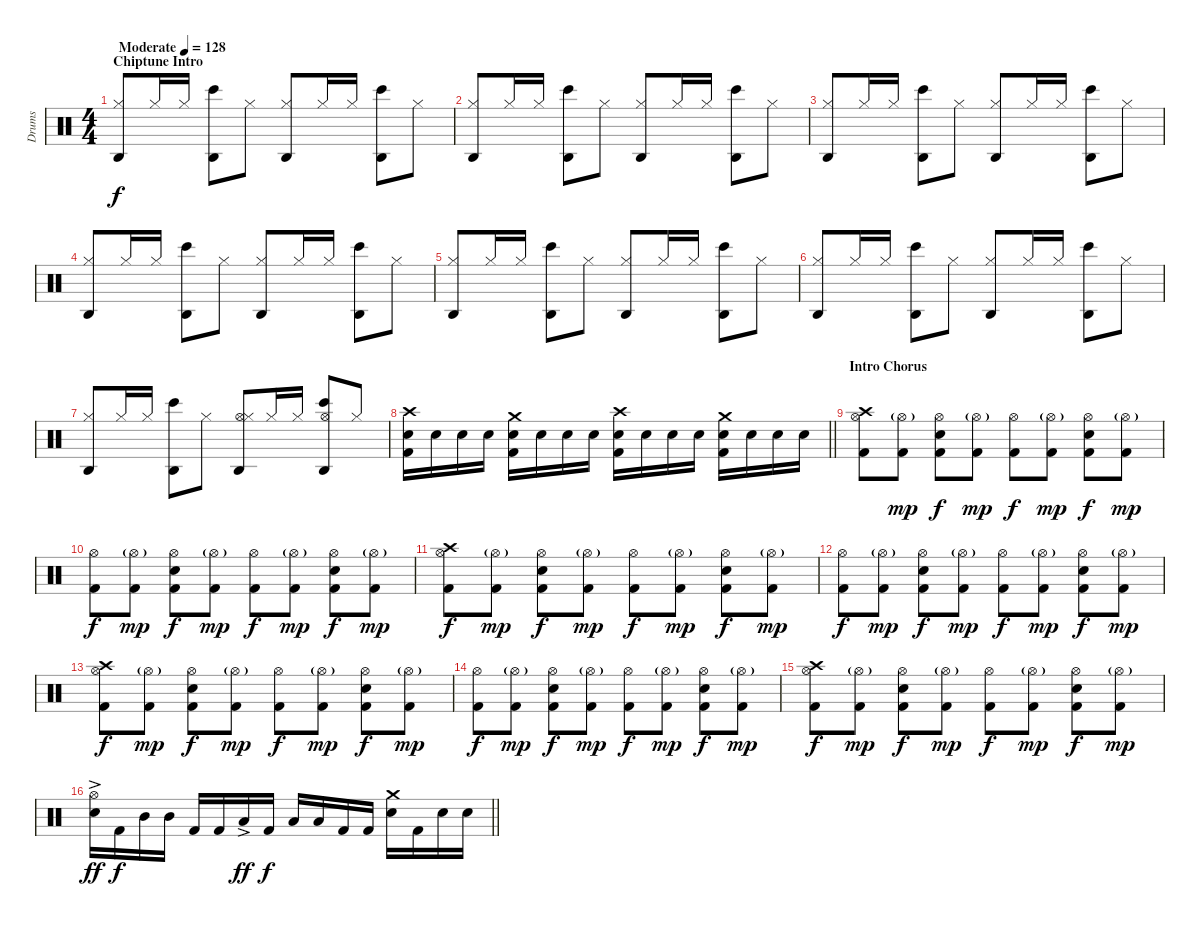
\track ("Drums" "Drums") {instrument percussion}
\staff {score}
\articulation defaults
\ts (4 4)
\section ("" "Chiptune Intro")
\tempo (128 "Moderate")
\clef neutral
\ks c
("Agogo high (hit)" "Hi-Hat (closed)").8{dy f} "Hi-Hat (closed)".16 "Hi-Hat (closed)".16 ("Agogo high (hit)" "Bongo High (hit)").8 "Hi-Hat (closed)".8 ("Agogo high (hit)" "Hi-Hat (closed)").8 "Hi-Hat (closed)".16 "Hi-Hat (closed)".16 ("Agogo high (hit)" "Bongo High (hit)").8 "Hi-Hat (closed)".8 |
("Agogo high (hit)" "Hi-Hat (closed)").8 "Hi-Hat (closed)".16 "Hi-Hat (closed)".16 ("Agogo high (hit)" "Bongo High (hit)").8 "Hi-Hat (closed)".8 ("Agogo high (hit)" "Hi-Hat (closed)").8 "Hi-Hat (closed)".16 "Hi-Hat (closed)".16 ("Agogo high (hit)" "Bongo High (hit)").8 "Hi-Hat (closed)".8 |
("Agogo high (hit)" "Hi-Hat (closed)").8 "Hi-Hat (closed)".16 "Hi-Hat (closed)".16 ("Agogo high (hit)" "Bongo High (hit)").8 "Hi-Hat (closed)".8 ("Agogo high (hit)" "Hi-Hat (closed)").8 "Hi-Hat (closed)".16 "Hi-Hat (closed)".16 ("Agogo high (hit)" "Bongo High (hit)").8 "Hi-Hat (closed)".8 |
("Agogo high (hit)" "Hi-Hat (closed)").8 "Hi-Hat (closed)".16 "Hi-Hat (closed)".16 ("Agogo high (hit)" "Bongo High (hit)").8 "Hi-Hat (closed)".8 ("Agogo high (hit)" "Hi-Hat (closed)").8 "Hi-Hat (closed)".16 "Hi-Hat (closed)".16 ("Agogo high (hit)" "Bongo High (hit)").8 "Hi-Hat (closed)".8 |
("Agogo high (hit)" "Hi-Hat (closed)").8 "Hi-Hat (closed)".16 "Hi-Hat (closed)".16 ("Agogo high (hit)" "Bongo High (hit)").8 "Hi-Hat (closed)".8 ("Agogo high (hit)" "Hi-Hat (closed)").8 "Hi-Hat (closed)".16 "Hi-Hat (closed)".16 ("Agogo high (hit)" "Bongo High (hit)").8 "Hi-Hat (closed)".8 |
("Agogo high (hit)" "Hi-Hat (closed)").8 "Hi-Hat (closed)".16 "Hi-Hat (closed)".16 ("Agogo high (hit)" "Bongo High (hit)").8 "Hi-Hat (closed)".8 ("Agogo high (hit)" "Hi-Hat (closed)").8 "Hi-Hat (closed)".16 "Hi-Hat (closed)".16 ("Agogo high (hit)" "Bongo High (hit)").8 "Hi-Hat (closed)".8 |
("Agogo high (hit)" "Hi-Hat (closed)").8 "Hi-Hat (closed)".16 "Hi-Hat (closed)".16 ("Agogo high (hit)" "Bongo High (hit)").8 "Hi-Hat (closed)".8 ("Hi-Hat (open)" "Agogo high (hit)" "Hi-Hat (closed)").8 "Hi-Hat (closed)".16 "Hi-Hat (closed)".16 ("Hi-Hat (open)" "Agogo high (hit)" "Bongo High (hit)").8 "Hi-Hat (closed)".8 |
\barLineRight lightlight
("Crash high (hit)" "Snare (hit) 2" "Kick (hit) 2").16 "Snare (hit) 2".16 "Snare (hit) 2".16 "Snare (hit) 2".16 ("Crash medium (hit)" "Snare (hit) 2" "Kick (hit) 2").16 "Snare (hit) 2".16 "Snare (hit) 2".16 "Snare (hit) 2".16 ("Crash high (hit)" "Snare (hit) 2" "Kick (hit) 2").16 "Snare (hit) 2".16 "Snare (hit) 2".16 "Snare (hit) 2".16 ("Crash medium (hit)" "Snare (hit) 2" "Kick (hit) 2").16 "Snare (hit) 2".16 "Snare (hit) 2".16 "Snare (hit) 2".16 |
\section ("" "Intro Chorus")
("Crash high (hit)" "Hi-Hat (open)" "Kick (hit) 2").8 ("Hi-Hat (open)"{g} "Kick (hit) 2").8{dy mp} ("Hi-Hat (open)" "Snare (hit) 2" "Kick (hit) 2").8{dy f} ("Hi-Hat (open)"{g} "Kick (hit) 2").8{dy mp} ("Hi-Hat (open)" "Kick (hit) 2").8{dy f} ("Hi-Hat (open)"{g} "Kick (hit) 2").8{dy mp} ("Hi-Hat (open)" "Snare (hit) 2" "Kick (hit) 2").8{dy f} ("Hi-Hat (open)"{g} "Kick (hit) 2").8{dy mp} |
("Hi-Hat (open)" "Kick (hit) 2").8{dy f} ("Hi-Hat (open)"{g} "Kick (hit) 2").8{dy mp} ("Hi-Hat (open)" "Snare (hit) 2" "Kick (hit) 2").8{dy f} ("Hi-Hat (open)"{g} "Kick (hit) 2").8{dy mp} ("Hi-Hat (open)" "Kick (hit) 2").8{dy f} ("Hi-Hat (open)"{g} "Kick (hit) 2").8{dy mp} ("Hi-Hat (open)" "Snare (hit) 2" "Kick (hit) 2").8{dy f} ("Hi-Hat (open)"{g} "Kick (hit) 2").8{dy mp} |
("Crash high (hit)" "Hi-Hat (open)" "Kick (hit) 2").8{dy f} ("Hi-Hat (open)"{g} "Kick (hit) 2").8{dy mp} ("Hi-Hat (open)" "Snare (hit) 2" "Kick (hit) 2").8{dy f} ("Hi-Hat (open)"{g} "Kick (hit) 2").8{dy mp} ("Hi-Hat (open)" "Kick (hit) 2").8{dy f} ("Hi-Hat (open)"{g} "Kick (hit) 2").8{dy mp} ("Hi-Hat (open)" "Snare (hit) 2" "Kick (hit) 2").8{dy f} ("Hi-Hat (open)"{g} "Kick (hit) 2").8{dy mp} |
("Hi-Hat (open)" "Kick (hit) 2").8{dy f} ("Hi-Hat (open)"{g} "Kick (hit) 2").8{dy mp} ("Hi-Hat (open)" "Snare (hit) 2" "Kick (hit) 2").8{dy f} ("Hi-Hat (open)"{g} "Kick (hit) 2").8{dy mp} ("Hi-Hat (open)" "Kick (hit) 2").8{dy f} ("Hi-Hat (open)"{g} "Kick (hit) 2").8{dy mp} ("Hi-Hat (open)" "Snare (hit) 2" "Kick (hit) 2").8{dy f} ("Hi-Hat (open)"{g} "Kick (hit) 2").8{dy mp} |
("Crash high (hit)" "Hi-Hat (open)" "Kick (hit) 2").8{dy f} ("Hi-Hat (open)"{g} "Kick (hit) 2").8{dy mp} ("Hi-Hat (open)" "Snare (hit) 2" "Kick (hit) 2").8{dy f} ("Hi-Hat (open)"{g} "Kick (hit) 2").8{dy mp} ("Hi-Hat (open)" "Kick (hit) 2").8{dy f} ("Hi-Hat (open)"{g} "Kick (hit) 2").8{dy mp} ("Hi-Hat (open)" "Snare (hit) 2" "Kick (hit) 2").8{dy f} ("Hi-Hat (open)"{g} "Kick (hit) 2").8{dy mp} |
("Hi-Hat (open)" "Kick (hit) 2").8{dy f} ("Hi-Hat (open)"{g} "Kick (hit) 2").8{dy mp} ("Hi-Hat (open)" "Snare (hit) 2" "Kick (hit) 2").8{dy f} ("Hi-Hat (open)"{g} "Kick (hit) 2").8{dy mp} ("Hi-Hat (open)" "Kick (hit) 2").8{dy f} ("Hi-Hat (open)"{g} "Kick (hit) 2").8{dy mp} ("Hi-Hat (open)" "Snare (hit) 2" "Kick (hit) 2").8{dy f} ("Hi-Hat (open)"{g} "Kick (hit) 2").8{dy mp} |
("Crash high (hit)" "Hi-Hat (open)" "Kick (hit) 2").8{dy f} ("Hi-Hat (open)"{g} "Kick (hit) 2").8{dy mp} ("Hi-Hat (open)" "Snare (hit) 2" "Kick (hit) 2").8{dy f} ("Hi-Hat (open)"{g} "Kick (hit) 2").8{dy mp} ("Hi-Hat (open)" "Kick (hit) 2").8{dy f} ("Hi-Hat (open)"{g} "Kick (hit) 2").8{dy mp} ("Hi-Hat (open)" "Snare (hit) 2" "Kick (hit) 2").8{dy f} ("Hi-Hat (open)"{g} "Kick (hit) 2").8{dy mp} |
\barLineRight lightlight
("Hi-Hat (open)" "Snare (hit) 2"{ac}).16{dy ff} "Kick (hit) 2".16{dy f} "Mid Tom (hit)".16 "Mid Tom (hit)".16 "Kick (hit) 2".16 "Kick (hit) 2".16 "Low Tom (hit)"{ac}.16{dy ff} "Kick (hit) 2".16{dy f} "Low Tom (hit)".16 "Low Tom (hit)".16 "Kick (hit) 2".16 "Kick (hit) 2".16 ("Crash medium (hit)" "Snare (hit) 2").16 "Kick (hit) 2".16 "Snare (hit) 2".16 "Snare (hit) 2".16
